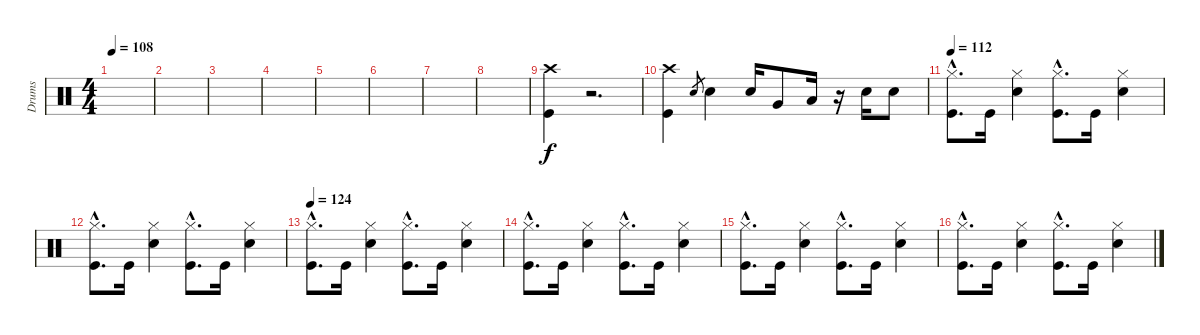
\track ("Drums" "Drums") {instrument percussion}
\staff {score}
\articulation defaults
\ts (4 4)
\tempo 108
\clef neutral
\ks c
|
|
|
|
|
|
|
|
("Crash high (hit)" "Kick (hit)").4 r.2{d} |
("Crash high (hit)" "Kick (hit)").4 "Snare (hit) 2".8{gr} "Snare (hit) 2".4 "Snare (hit) 2".16 "Very Low Tom (hit)".8 "Low Floor Tom (hit)".16 r.16 "Snare (hit) 2".16 "Snare (hit) 2".8 |
\tempo 112
("Hi-Hat (closed)"{hac} "Kick (hit)"{hac}).8{d} "Kick (hit)".16 ("Hi-Hat (closed)" "Snare (hit) 2").4 ("Hi-Hat (closed)"{hac} "Kick (hit)"{hac}).8{d} "Kick (hit)".16 ("Hi-Hat (closed)" "Snare (hit) 2").4 |
("Hi-Hat (closed)"{hac} "Kick (hit)"{hac}).8{d} "Kick (hit)".16 ("Hi-Hat (closed)" "Snare (hit) 2").4 ("Hi-Hat (closed)"{hac} "Kick (hit)"{hac}).8{d} "Kick (hit)".16 ("Hi-Hat (closed)" "Snare (hit) 2").4 |
\tempo 124
("Hi-Hat (closed)"{hac} "Kick (hit)"{hac}).8{d} "Kick (hit)".16 ("Hi-Hat (closed)" "Snare (hit) 2").4 ("Hi-Hat (closed)"{hac} "Kick (hit)"{hac}).8{d} "Kick (hit)".16 ("Hi-Hat (closed)" "Snare (hit) 2").4 |
("Hi-Hat (closed)"{hac} "Kick (hit)"{hac}).8{d} "Kick (hit)".16 ("Hi-Hat (closed)" "Snare (hit) 2").4 ("Hi-Hat (closed)"{hac} "Kick (hit)"{hac}).8{d} "Kick (hit)".16 ("Hi-Hat (closed)" "Snare (hit) 2").4 |
("Hi-Hat (closed)"{hac} "Kick (hit)"{hac}).8{d} "Kick (hit)".16 ("Hi-Hat (closed)" "Snare (hit) 2").4 ("Hi-Hat (closed)"{hac} "Kick (hit)"{hac}).8{d} "Kick (hit)".16 ("Hi-Hat (closed)" "Snare (hit) 2").4 |
("Hi-Hat (closed)"{hac} "Kick (hit)"{hac}).8{d} "Kick (hit)".16 ("Hi-Hat (closed)" "Snare (hit) 2").4 ("Hi-Hat (closed)"{hac} "Kick (hit)"{hac}).8{d} "Kick (hit)".16 ("Hi-Hat (closed)" "Snare (hit) 2").4
